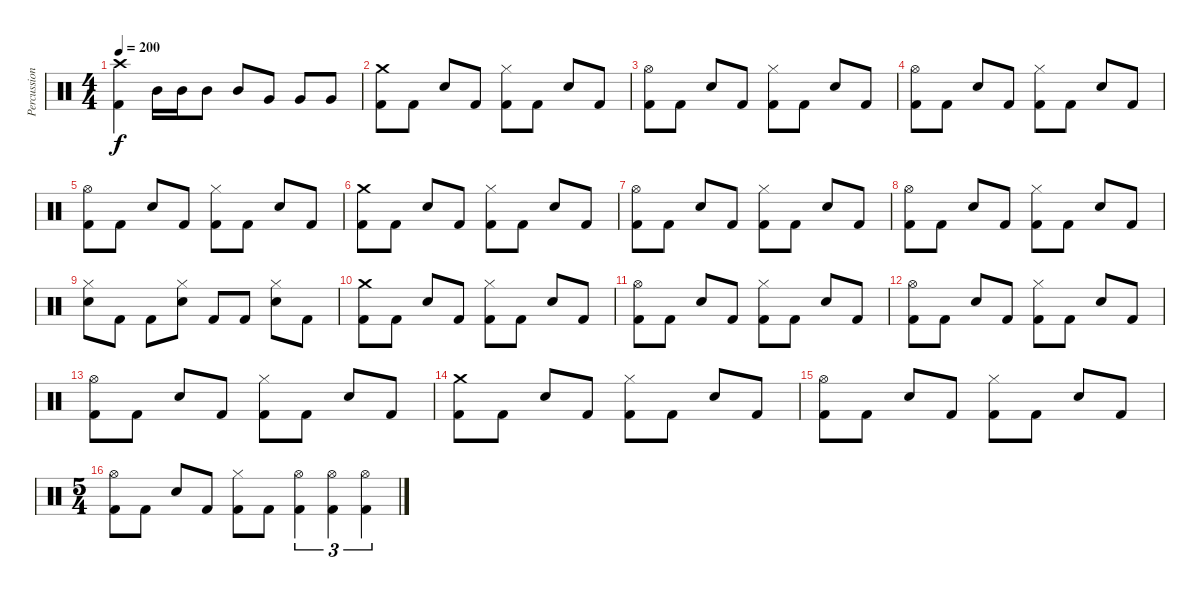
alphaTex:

\track ("Percussion" "Percussion") {instrument percussion}
\staff {score}
\articulation defaults
\ts (4 4)
\tempo 200
\clef neutral
\ks c
("Crash high (hit)" "Kick (hit) 2").4{dy f} "Mid Tom (hit)".16 "Mid Tom (hit)".16 "Mid Tom (hit)".8 "Mid Tom (hit)".8 "Very Low Tom (hit)".8 "Very Low Tom (hit)".8 "Very Low Tom (hit)".8 |
("Crash medium (hit)" "Kick (hit) 2").8 "Kick (hit) 2".8 "Snare (hit) 2".8 "Kick (hit) 2".8 ("Hi-Hat (closed)" "Kick (hit) 2").8 "Kick (hit) 2".8 "Snare (hit) 2".8 "Kick (hit) 2".8 |
("Hi-Hat (open)" "Kick (hit) 2").8 "Kick (hit) 2".8 "Snare (hit) 2".8 "Kick (hit) 2".8 ("Hi-Hat (closed)" "Kick (hit) 2").8 "Kick (hit) 2".8 "Snare (hit) 2".8 "Kick (hit) 2".8 |
("Hi-Hat (open)" "Kick (hit) 2").8 "Kick (hit) 2".8 "Snare (hit) 2".8 "Kick (hit) 2".8 ("Hi-Hat (closed)" "Kick (hit) 2").8 "Kick (hit) 2".8 "Snare (hit) 2".8 "Kick (hit) 2".8 |
("Hi-Hat (open)" "Kick (hit) 2").8 "Kick (hit) 2".8 "Snare (hit) 2".8 "Kick (hit) 2".8 ("Hi-Hat (closed)" "Kick (hit) 2").8 "Kick (hit) 2".8 "Snare (hit) 2".8 "Kick (hit) 2".8 |
("Crash medium (hit)" "Kick (hit) 2").8 "Kick (hit) 2".8 "Snare (hit) 2".8 "Kick (hit) 2".8 ("Hi-Hat (closed)" "Kick (hit) 2").8 "Kick (hit) 2".8 "Snare (hit) 2".8 "Kick (hit) 2".8 |
("Hi-Hat (open)" "Kick (hit) 2").8 "Kick (hit) 2".8 "Snare (hit) 2".8 "Kick (hit) 2".8 ("Hi-Hat (closed)" "Kick (hit) 2").8 "Kick (hit) 2".8 "Snare (hit) 2".8 "Kick (hit) 2".8 |
("Hi-Hat (open)" "Kick (hit) 2").8 "Kick (hit) 2".8 "Snare (hit) 2".8 "Kick (hit) 2".8 ("Hi-Hat (closed)" "Kick (hit) 2").8 "Kick (hit) 2".8 "Snare (hit) 2".8 "Kick (hit) 2".8 |
("Hi-Hat (closed)" "Snare (hit) 2").8 "Kick (hit) 2".8 "Kick (hit) 2".8 ("Hi-Hat (closed)" "Snare (hit) 2").8 "Kick (hit) 2".8 "Kick (hit) 2".8 ("Hi-Hat (closed)" "Snare (hit) 2").8 "Kick (hit) 2".8 |
("Crash medium (hit)" "Kick (hit) 2").8 "Kick (hit) 2".8 "Snare (hit) 2".8 "Kick (hit) 2".8 ("Hi-Hat (closed)" "Kick (hit) 2").8 "Kick (hit) 2".8 "Snare (hit) 2".8 "Kick (hit) 2".8 |
("Hi-Hat (open)" "Kick (hit) 2").8 "Kick (hit) 2".8 "Snare (hit) 2".8 "Kick (hit) 2".8 ("Hi-Hat (closed)" "Kick (hit) 2").8 "Kick (hit) 2".8 "Snare (hit) 2".8 "Kick (hit) 2".8 |
("Hi-Hat (open)" "Kick (hit) 2").8 "Kick (hit) 2".8 "Snare (hit) 2".8 "Kick (hit) 2".8 ("Hi-Hat (closed)" "Kick (hit) 2").8 "Kick (hit) 2".8 "Snare (hit) 2".8 "Kick (hit) 2".8 |
("Hi-Hat (open)" "Kick (hit) 2").8 "Kick (hit) 2".8 "Snare (hit) 2".8 "Kick (hit) 2".8 ("Hi-Hat (closed)" "Kick (hit) 2").8 "Kick (hit) 2".8 "Snare (hit) 2".8 "Kick (hit) 2".8 |
("Crash medium (hit)" "Kick (hit) 2").8 "Kick (hit) 2".8 "Snare (hit) 2".8 "Kick (hit) 2".8 ("Hi-Hat (closed)" "Kick (hit) 2").8 "Kick (hit) 2".8 "Snare (hit) 2".8 "Kick (hit) 2".8 |
("Hi-Hat (open)" "Kick (hit) 2").8 "Kick (hit) 2".8 "Snare (hit) 2".8 "Kick (hit) 2".8 ("Hi-Hat (closed)" "Kick (hit) 2").8 "Kick (hit) 2".8 "Snare (hit) 2".8 "Kick (hit) 2".8 |
\ts (5 4)
("Hi-Hat (open)" "Kick (hit) 2").8 "Kick (hit) 2".8 "Snare (hit) 2".8 "Kick (hit) 2".8 ("Hi-Hat (closed)" "Kick (hit) 2").8 "Kick (hit) 2".8 ("Hi-Hat (open)" "Kick (hit) 2").4{tu (3 2)} ("Hi-Hat (open)" "Kick (hit) 2").4{tu (3 2)} ("Hi-Hat (open)" "Kick (hit) 2").4{tu (3 2)}
